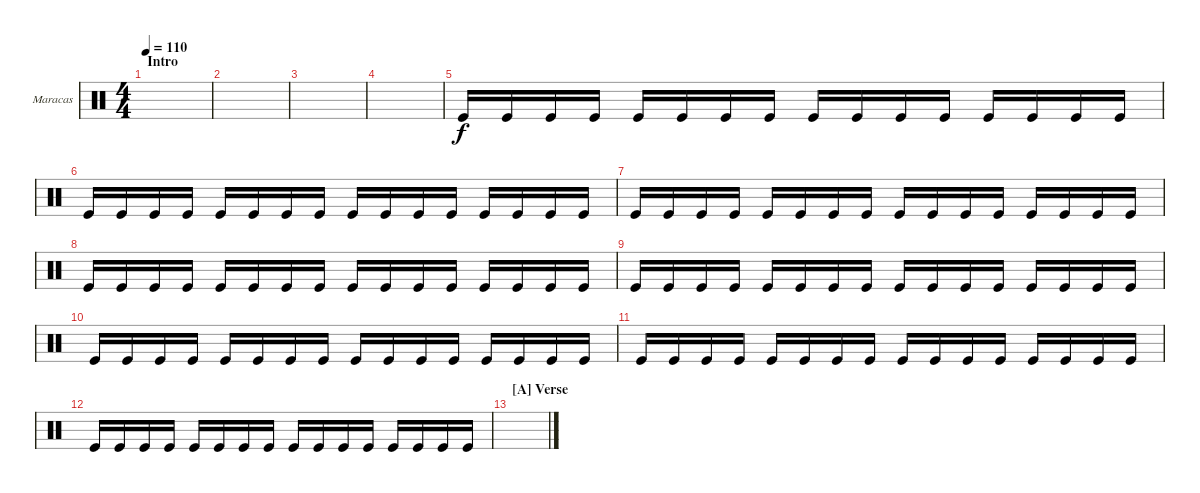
\defaultSystemsLayout 4
\bracketExtendMode groupsimilarinstruments
\firstSystemTrackNameOrientation horizontal
\otherSystemsTrackNameOrientation horizontal
\track ("Maracas" "Maracas") {instrument percussion}
\staff {score}
\articulation defaults
\ts (4 4)
\section ("" "Intro")
\tempo 110
\clef neutral
\scale
0.474178
\ks c
|
\scale
0.262911 |
\scale
0.262911 |
\scale
0.333333 |
\scale
0.333333 "Kick (hit)".16 "Kick (hit)".16 "Kick (hit)".16 "Kick (hit)".16 "Kick (hit)".16 "Kick (hit)".16 "Kick (hit)".16 "Kick (hit)".16 "Kick (hit)".16 "Kick (hit)".16 "Kick (hit)".16 "Kick (hit)".16 "Kick (hit)".16 "Kick (hit)".16 "Kick (hit)".16 "Kick (hit)".16 |
\scale
0.333333 "Kick (hit)".16 "Kick (hit)".16 "Kick (hit)".16 "Kick (hit)".16 "Kick (hit)".16 "Kick (hit)".16 "Kick (hit)".16 "Kick (hit)".16 "Kick (hit)".16 "Kick (hit)".16 "Kick (hit)".16 "Kick (hit)".16 "Kick (hit)".16 "Kick (hit)".16 "Kick (hit)".16 "Kick (hit)".16 |
"Kick (hit)".16 "Kick (hit)".16 "Kick (hit)".16 "Kick (hit)".16 "Kick (hit)".16 "Kick (hit)".16 "Kick (hit)".16 "Kick (hit)".16 "Kick (hit)".16 "Kick (hit)".16 "Kick (hit)".16 "Kick (hit)".16 "Kick (hit)".16 "Kick (hit)".16 "Kick (hit)".16 "Kick (hit)".16 |
"Kick (hit)".16 "Kick (hit)".16 "Kick (hit)".16 "Kick (hit)".16 "Kick (hit)".16 "Kick (hit)".16 "Kick (hit)".16 "Kick (hit)".16 "Kick (hit)".16 "Kick (hit)".16 "Kick (hit)".16 "Kick (hit)".16 "Kick (hit)".16 "Kick (hit)".16 "Kick (hit)".16 "Kick (hit)".16 |
"Kick (hit)".16 "Kick (hit)".16 "Kick (hit)".16 "Kick (hit)".16 "Kick (hit)".16 "Kick (hit)".16 "Kick (hit)".16 "Kick (hit)".16 "Kick (hit)".16 "Kick (hit)".16 "Kick (hit)".16 "Kick (hit)".16 "Kick (hit)".16 "Kick (hit)".16 "Kick (hit)".16 "Kick (hit)".16 |
"Kick (hit)".16 "Kick (hit)".16 "Kick (hit)".16 "Kick (hit)".16 "Kick (hit)".16 "Kick (hit)".16 "Kick (hit)".16 "Kick (hit)".16 "Kick (hit)".16 "Kick (hit)".16 "Kick (hit)".16 "Kick (hit)".16 "Kick (hit)".16 "Kick (hit)".16 "Kick (hit)".16 "Kick (hit)".16 |
"Kick (hit)".16 "Kick (hit)".16 "Kick (hit)".16 "Kick (hit)".16 "Kick (hit)".16 "Kick (hit)".16 "Kick (hit)".16 "Kick (hit)".16 "Kick (hit)".16 "Kick (hit)".16 "Kick (hit)".16 "Kick (hit)".16 "Kick (hit)".16 "Kick (hit)".16 "Kick (hit)".16 "Kick (hit)".16 |
"Kick (hit)".16 "Kick (hit)".16 "Kick (hit)".16 "Kick (hit)".16 "Kick (hit)".16 "Kick (hit)".16 "Kick (hit)".16 "Kick (hit)".16 "Kick (hit)".16 "Kick (hit)".16 "Kick (hit)".16 "Kick (hit)".16 "Kick (hit)".16 "Kick (hit)".16 "Kick (hit)".16 "Kick (hit)".16 |
\section ("A" "Verse")
